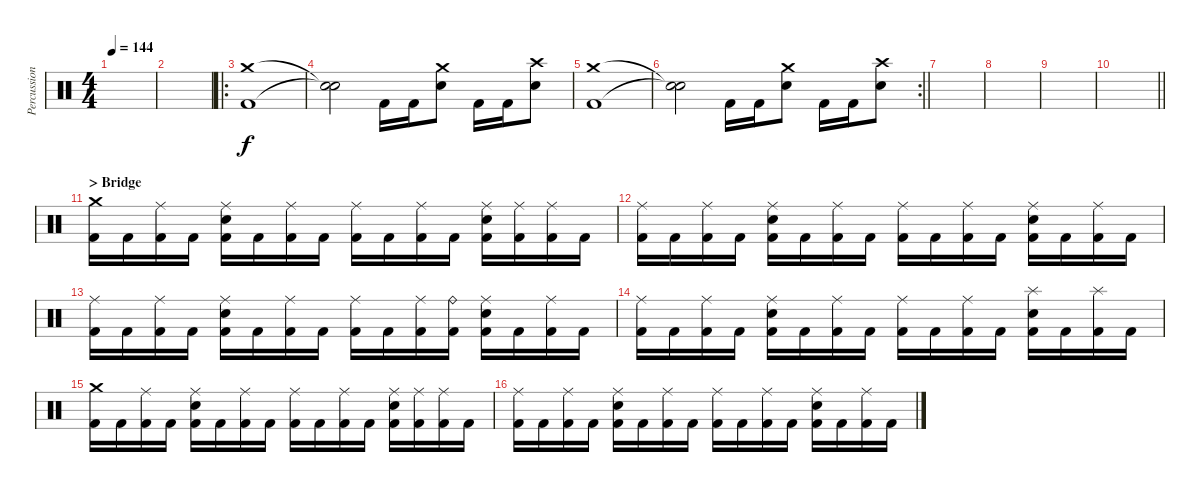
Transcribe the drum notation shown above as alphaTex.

\track ("Percussion" "Percussion") {instrument percussion}
\staff {score}
\articulation defaults
\ts (4 4)
\tempo 144
\clef neutral
\ks c
|
|
\ro
("Crash medium (hit)" "Kick (hit) 2").1 |
("Snare (hit)"{t} "Snare (hit)"{t}).2 "Kick (hit) 2".16 "Kick (hit) 2".16 ("Crash medium (hit)" "Electric Snare (hit)").8 "Kick (hit) 2".16 "Kick (hit) 2".16 ("Crash high (hit)" "Electric Snare (hit)").8 |
("Crash medium (hit)" "Kick (hit) 2").1 |
\rc 2
\barLineRight lightlight
("Snare (hit)"{t} "Snare (hit)"{t}).2 "Kick (hit) 2".16 "Kick (hit) 2".16 ("Crash medium (hit)" "Electric Snare (hit)").8 "Kick (hit) 2".16 "Kick (hit) 2".16 ("Crash high (hit)" "Electric Snare (hit)").8 |
|
|
|
\barLineRight lightlight
|
\section ("" "> Bridge")
("Crash medium (hit)" "Kick (hit) 2").16 "Kick (hit) 2".16 ("Ride (middle)" "Kick (hit) 2").16 "Kick (hit) 2".16 ("Ride (middle)" "Electric Snare (hit)" "Kick (hit) 2").16 "Kick (hit) 2".16 ("Ride (middle)" "Kick (hit) 2").16 "Kick (hit) 2".16 ("Ride (middle)" "Kick (hit) 2").16 "Kick (hit) 2".16 ("Ride (middle)" "Kick (hit) 2").16 "Kick (hit) 2".16 ("Ride (middle)" "Electric Snare (hit)" "Kick (hit) 2").16 ("Ride (middle)" "Kick (hit) 2").16 ("Ride (middle)" "Kick (hit) 2").16 "Kick (hit) 2".16 |
("Ride (middle)" "Kick (hit) 2").16 "Kick (hit) 2".16 ("Ride (middle)" "Kick (hit) 2").16 "Kick (hit) 2".16 ("Ride (middle)" "Electric Snare (hit)" "Kick (hit) 2").16 "Kick (hit) 2".16 ("Ride (middle)" "Kick (hit) 2").16 "Kick (hit) 2".16 ("Ride (middle)" "Kick (hit) 2").16 "Kick (hit) 2".16 ("Ride (middle)" "Kick (hit) 2").16 "Kick (hit) 2".16 ("Ride (middle)" "Electric Snare (hit)" "Kick (hit) 2").16 "Kick (hit) 2".16 ("Ride (middle)" "Kick (hit) 2").16 "Kick (hit) 2".16 |
("Ride (middle)" "Kick (hit) 2").16 "Kick (hit) 2".16 ("Ride (middle)" "Kick (hit) 2").16 "Kick (hit) 2".16 ("Ride (middle)" "Electric Snare (hit)" "Kick (hit) 2").16 "Kick (hit) 2".16 ("Ride (middle)" "Kick (hit) 2").16 "Kick (hit) 2".16 ("Ride (middle)" "Kick (hit) 2").16 "Kick (hit) 2".16 ("Ride (middle)" "Kick (hit) 2").16 ("Ride (bell)" "Kick (hit) 2").16 ("Ride (middle)" "Electric Snare (hit)" "Kick (hit) 2").16 "Kick (hit) 2".16 ("Ride (middle)" "Kick (hit) 2").16 "Kick (hit) 2".16 |
("Ride (middle)" "Kick (hit) 2").16 "Kick (hit) 2".16 ("Ride (middle)" "Kick (hit) 2").16 "Kick (hit) 2".16 ("Ride (middle)" "Electric Snare (hit)" "Kick (hit) 2").16 "Kick (hit) 2".16 ("Ride (middle)" "Kick (hit) 2").16 "Kick (hit) 2".16 ("Ride (middle)" "Kick (hit) 2").16 "Kick (hit) 2".16 ("Ride (middle)" "Kick (hit) 2").16 "Kick (hit) 2".16 ("Splash (hit)" "Electric Snare (hit)" "Kick (hit) 2").16 "Kick (hit) 2".16 ("Splash (hit)" "Kick (hit) 2").16 "Kick (hit) 2".16 |
("Crash medium (hit)" "Kick (hit) 2").16 "Kick (hit) 2".16 ("Ride (middle)" "Kick (hit) 2").16 "Kick (hit) 2".16 ("Ride (middle)" "Electric Snare (hit)" "Kick (hit) 2").16 "Kick (hit) 2".16 ("Ride (middle)" "Kick (hit) 2").16 "Kick (hit) 2".16 ("Ride (middle)" "Kick (hit) 2").16 "Kick (hit) 2".16 ("Ride (middle)" "Kick (hit) 2").16 "Kick (hit) 2".16 ("Ride (middle)" "Electric Snare (hit)" "Kick (hit) 2").16 ("Ride (middle)" "Kick (hit) 2").16 ("Ride (middle)" "Kick (hit) 2").16 "Kick (hit) 2".16 |
("Ride (middle)" "Kick (hit) 2").16 "Kick (hit) 2".16 ("Ride (middle)" "Kick (hit) 2").16 "Kick (hit) 2".16 ("Ride (middle)" "Electric Snare (hit)" "Kick (hit) 2").16 "Kick (hit) 2".16 ("Ride (middle)" "Kick (hit) 2").16 "Kick (hit) 2".16 ("Ride (middle)" "Kick (hit) 2").16 "Kick (hit) 2".16 ("Ride (middle)" "Kick (hit) 2").16 "Kick (hit) 2".16 ("Ride (middle)" "Electric Snare (hit)" "Kick (hit) 2").16 "Kick (hit) 2".16 ("Ride (middle)" "Kick (hit) 2").16 "Kick (hit) 2".16
